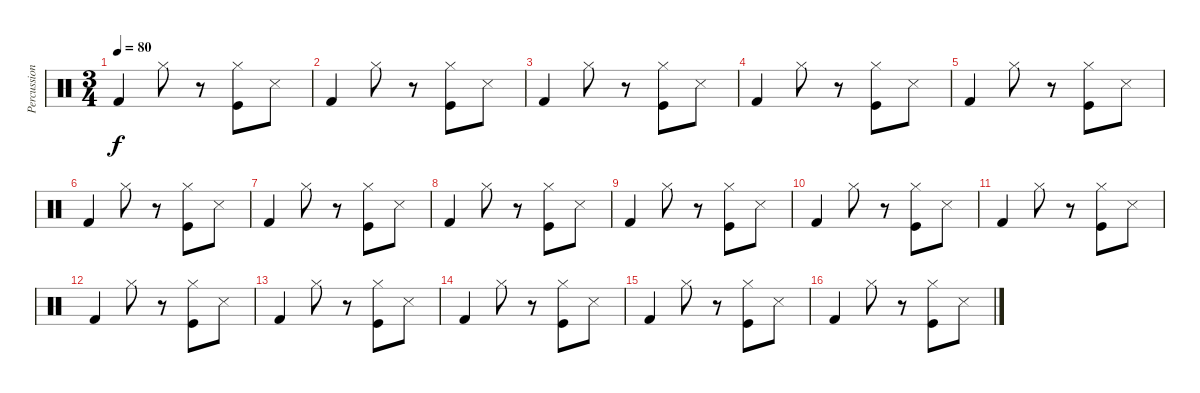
\track ("Percussions" "Percussion") {instrument percussion}
\staff {score}
\articulation defaults
\ts (3 4)
\tempo 80
\clef neutral
\ks c "Kick (hit) 2".4{dy f} "Hi-Hat (closed)".8
r.8 ("Hi-Hat (closed)" "Kick (hit)").8 "Snare (side stick) 3".8 |
"Kick (hit) 2".4 "Hi-Hat (closed)".8 r.8 ("Hi-Hat (closed)" "Kick (hit)").8 "Snare (side stick) 3".8 |
"Kick (hit) 2".4 "Hi-Hat (closed)".8 r.8 ("Hi-Hat (closed)" "Kick (hit)").8 "Snare (side stick) 3".8 |
"Kick (hit) 2".4 "Hi-Hat (closed)".8 r.8 ("Hi-Hat (closed)" "Kick (hit)").8 "Snare (side stick) 3".8 |
"Kick (hit) 2".4 "Hi-Hat (closed)".8 r.8 ("Hi-Hat (closed)" "Kick (hit)").8 "Snare (side stick) 3".8 |
"Kick (hit) 2".4 "Hi-Hat (closed)".8 r.8 ("Hi-Hat (closed)" "Kick (hit)").8 "Snare (side stick) 3".8 |
"Kick (hit) 2".4 "Hi-Hat (closed)".8 r.8 ("Hi-Hat (closed)" "Kick (hit)").8 "Snare (side stick) 3".8 |
"Kick (hit) 2".4 "Hi-Hat (closed)".8 r.8 ("Hi-Hat (closed)" "Kick (hit)").8 "Snare (side stick) 3".8 |
"Kick (hit) 2".4 "Hi-Hat (closed)".8 r.8 ("Hi-Hat (closed)" "Kick (hit)").8 "Snare (side stick) 3".8 |
"Kick (hit) 2".4 "Hi-Hat (closed)".8 r.8 ("Hi-Hat (closed)" "Kick (hit)").8 "Snare (side stick) 3".8 |
"Kick (hit) 2".4 "Hi-Hat (closed)".8 r.8 ("Hi-Hat (closed)" "Kick (hit)").8 "Snare (side stick) 3".8 |
"Kick (hit) 2".4 "Hi-Hat (closed)".8 r.8 ("Hi-Hat (closed)" "Kick (hit)").8 "Snare (side stick) 3".8 |
"Kick (hit) 2".4 "Hi-Hat (closed)".8 r.8 ("Hi-Hat (closed)" "Kick (hit)").8 "Snare (side stick) 3".8 |
"Kick (hit) 2".4 "Hi-Hat (closed)".8 r.8 ("Hi-Hat (closed)" "Kick (hit)").8 "Snare (side stick) 3".8 |
"Kick (hit) 2".4 "Hi-Hat (closed)".8 r.8 ("Hi-Hat (closed)" "Kick (hit)").8 "Snare (side stick) 3".8 |
"Kick (hit) 2".4 "Hi-Hat (closed)".8 r.8 ("Hi-Hat (closed)" "Kick (hit)").8 "Snare (side stick) 3".8
